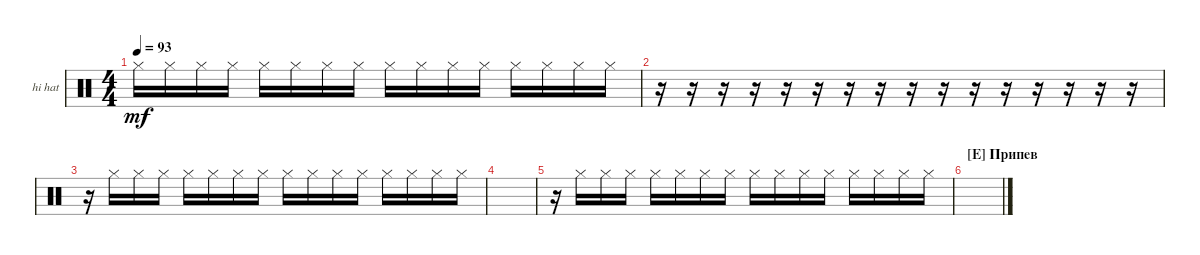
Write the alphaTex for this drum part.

\bracketExtendMode groupsimilarinstruments
\firstSystemTrackNameOrientation horizontal
\otherSystemsTrackNameOrientation horizontal
\track ("hi hat" "hi hat") {instrument percussion}
\staff {score}
\articulation defaults
\ts (4 4)
\tempo 93
\clef neutral
\scale
0.333333
\ks c "Hi-Hat (closed)".16{dy mf} "Hi-Hat (closed)".16 "Hi-Hat (closed)".16 "Hi-Hat (closed)".16 "Hi-Hat (closed)".16 "Hi-Hat (closed)".16 "Hi-Hat (closed)".16 "Hi-Hat (closed)".16 "Hi-Hat (closed)".16 "Hi-Hat (closed)".16 "Hi-Hat (closed)".16 "Hi-Hat (closed)".16 "Hi-Hat (closed)".16 "Hi-Hat (closed)".16 "Hi-Hat (closed)".16 "Hi-Hat (closed)".16
|
\scale
0.333333 r.16 r.16 r.16 r.16 r.16 r.16 r.16 r.16 r.16 r.16 r.16 r.16 r.16 r.16 r.16 r.16 |
\scale
0.333333 r.16 "Hi-Hat (closed)".16 "Hi-Hat (closed)".16 "Hi-Hat (closed)".16 "Hi-Hat (closed)".16 "Hi-Hat (closed)".16 "Hi-Hat (closed)".16 "Hi-Hat (closed)".16 "Hi-Hat (closed)".16 "Hi-Hat (closed)".16 "Hi-Hat (closed)".16 "Hi-Hat (closed)".16 "Hi-Hat (closed)".16 "Hi-Hat (closed)".16 "Hi-Hat (closed)".16 "Hi-Hat (closed)".16 |
\scale
0.333333 |
\scale
0.333333 r.16 "Hi-Hat (closed)".16 "Hi-Hat (closed)".16 "Hi-Hat (closed)".16 "Hi-Hat (closed)".16 "Hi-Hat (closed)".16 "Hi-Hat (closed)".16 "Hi-Hat (closed)".16 "Hi-Hat (closed)".16 "Hi-Hat (closed)".16 "Hi-Hat (closed)".16 "Hi-Hat (closed)".16 "Hi-Hat (closed)".16 "Hi-Hat (closed)".16 "Hi-Hat (closed)".16 "Hi-Hat (closed)".16 |
\section ("E" "Припев")
\scale
0.333333 |
\scale
0.333333 |
\scale
0.333333 |
\scale
0.333333 |
\scale
0.333333 |
\scale
0.333333
